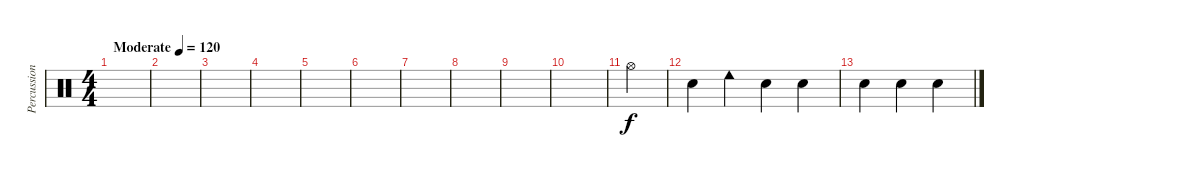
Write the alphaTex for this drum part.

\track ("Percussion" "Percussion") {instrument percussion}
\staff {score}
\articulation defaults
\ts (4 4)
\tempo (120 "Moderate")
\clef neutral
\ks c
|
|
|
|
|
|
|
|
|
|
"Hi-Hat (open)".4 |
"Snare (hit)".4 "Cowbell low (hit)".4 "Snare (hit)".4 "Snare (hit)".4 |
"Snare (hit)".4 "Snare (hit)".4 "Snare (hit)".4
